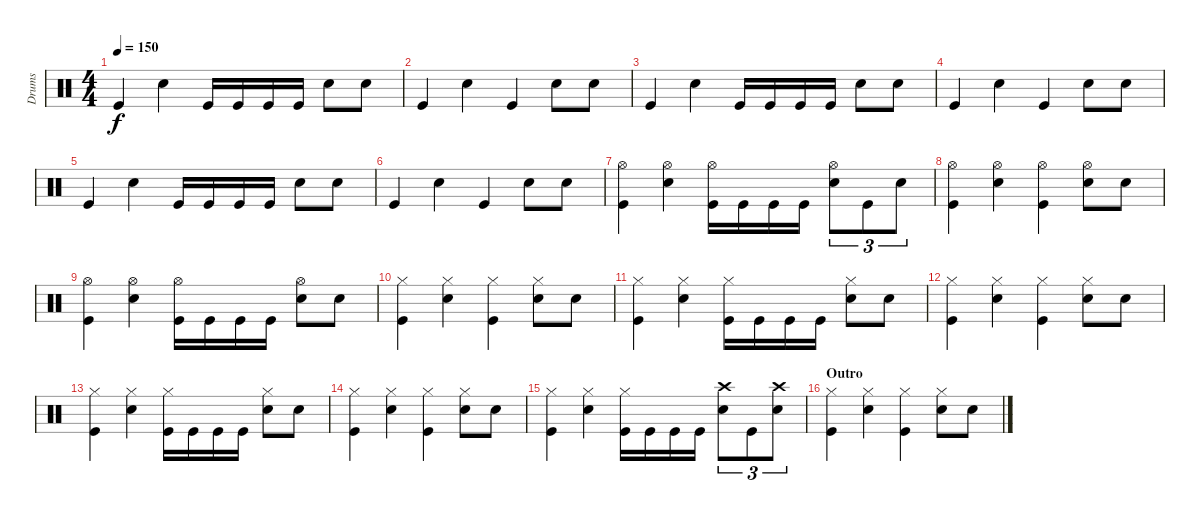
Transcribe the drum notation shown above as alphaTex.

\track ("Drums" "Drums") {instrument percussion}
\staff {score}
\articulation defaults
\ts (4 4)
\tempo 150
\clef neutral
\ks c "Kick (hit)".4{dy f} "Electric Snare (hit)".4 "Kick (hit)".16 "Kick (hit)".16 "Kick (hit)".16 "Kick (hit)".16 "Electric Snare (hit)".8 "Electric Snare (hit)".8
|
"Kick (hit)".4 "Electric Snare (hit)".4 "Kick (hit)".4 "Electric Snare (hit)".8 "Electric Snare (hit)".8 |
"Kick (hit)".4 "Electric Snare (hit)".4 "Kick (hit)".16 "Kick (hit)".16 "Kick (hit)".16 "Kick (hit)".16 "Electric Snare (hit)".8 "Electric Snare (hit)".8 |
"Kick (hit)".4 "Electric Snare (hit)".4 "Kick (hit)".4 "Electric Snare (hit)".8 "Electric Snare (hit)".8 |
"Kick (hit)".4 "Electric Snare (hit)".4 "Kick (hit)".16 "Kick (hit)".16 "Kick (hit)".16 "Kick (hit)".16 "Electric Snare (hit)".8 "Electric Snare (hit)".8 |
"Kick (hit)".4 "Electric Snare (hit)".4 "Kick (hit)".4 "Electric Snare (hit)".8 "Electric Snare (hit)".8 |
("Kick (hit)" "Hi-Hat (open)").4 ("Electric Snare (hit)" "Hi-Hat (open)").4 ("Kick (hit)" "Hi-Hat (open)").16 "Kick (hit)".16 "Kick (hit)".16 "Kick (hit)".16 ("Electric Snare (hit)" "Hi-Hat (open)").8{tu (3 2)} "Kick (hit)".8{tu (3 2)} "Electric Snare (hit)".8{tu (3 2)} |
("Kick (hit)" "Hi-Hat (open)").4 ("Electric Snare (hit)" "Hi-Hat (open)").4 ("Kick (hit)" "Hi-Hat (open)").4 ("Electric Snare (hit)" "Hi-Hat (open)").8 "Electric Snare (hit)".8 |
("Kick (hit)" "Hi-Hat (open)").4 ("Electric Snare (hit)" "Hi-Hat (open)").4 ("Kick (hit)" "Hi-Hat (open)").16 "Kick (hit)".16 "Kick (hit)".16 "Kick (hit)".16 ("Electric Snare (hit)" "Hi-Hat (open)").8 "Electric Snare (hit)".8 |
("Kick (hit)" "Hi-Hat (closed)").4 ("Electric Snare (hit)" "Hi-Hat (closed)").4 ("Kick (hit)" "Hi-Hat (closed)").4 ("Electric Snare (hit)" "Hi-Hat (closed)").8 "Electric Snare (hit)".8 |
("Kick (hit)" "Hi-Hat (closed)").4 ("Electric Snare (hit)" "Hi-Hat (closed)").4 ("Kick (hit)" "Hi-Hat (closed)").16 "Kick (hit)".16 "Kick (hit)".16 "Kick (hit)".16 ("Electric Snare (hit)" "Hi-Hat (closed)").8 "Electric Snare (hit)".8 |
("Kick (hit)" "Hi-Hat (closed)").4 ("Electric Snare (hit)" "Hi-Hat (closed)").4 ("Kick (hit)" "Hi-Hat (closed)").4 ("Electric Snare (hit)" "Hi-Hat (closed)").8 "Electric Snare (hit)".8 |
("Kick (hit)" "Hi-Hat (closed)").4 ("Electric Snare (hit)" "Hi-Hat (closed)").4 ("Kick (hit)" "Hi-Hat (closed)").16 "Kick (hit)".16 "Kick (hit)".16 "Kick (hit)".16 ("Electric Snare (hit)" "Hi-Hat (closed)").8 "Electric Snare (hit)".8 |
("Kick (hit)" "Hi-Hat (closed)").4 ("Electric Snare (hit)" "Hi-Hat (closed)").4 ("Kick (hit)" "Hi-Hat (closed)").4 ("Electric Snare (hit)" "Hi-Hat (closed)").8 "Electric Snare (hit)".8 |
("Kick (hit)" "Hi-Hat (closed)").4 ("Electric Snare (hit)" "Hi-Hat (closed)").4 ("Kick (hit)" "Hi-Hat (closed)").16 "Kick (hit)".16 "Kick (hit)".16 "Kick (hit)".16 ("Electric Snare (hit)" "Crash high (hit)").8{tu (3 2)} "Kick (hit)".8{tu (3 2)} ("Electric Snare (hit)" "Crash high (hit)").8{tu (3 2)} |
\section ("" "Outro")
("Kick (hit)" "Hi-Hat (closed)").4 ("Electric Snare (hit)" "Hi-Hat (closed)").4 ("Kick (hit)" "Hi-Hat (closed)").4 ("Electric Snare (hit)" "Hi-Hat (closed)").8 "Electric Snare (hit)".8
